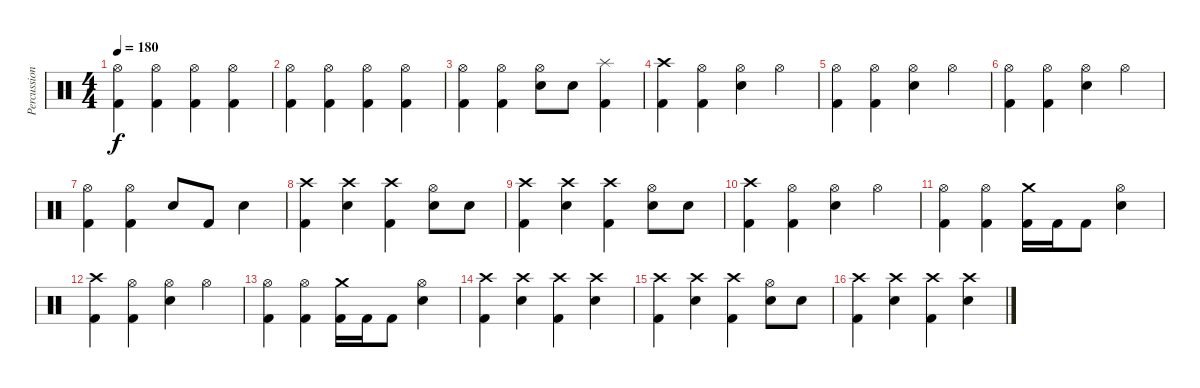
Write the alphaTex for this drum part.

\track ("Percussions" "Percussion") {instrument percussion}
\staff {score}
\articulation defaults
\ts (4 4)
\tempo 180
\clef neutral
\ks c
("Hi-Hat (open)" "Kick (hit) 2").4{dy f} ("Hi-Hat (open)" "Kick (hit) 2").4 ("Hi-Hat (open)" "Kick (hit) 2").4 ("Hi-Hat (open)" "Kick (hit) 2").4 |
("Hi-Hat (open)" "Kick (hit) 2").4{volume 13} ("Hi-Hat (open)" "Kick (hit) 2").4 ("Hi-Hat (open)" "Kick (hit) 2").4 ("Hi-Hat (open)" "Kick (hit) 2").4 |
("Hi-Hat (open)" "Kick (hit) 2").4 ("Hi-Hat (open)" "Kick (hit) 2").4 ("Hi-Hat (open)" "Snare (hit) 2").8 "Snare (hit) 2".8 ("Splash (hit)" "Kick (hit) 2").4 |
("Crash high (hit)" "Kick (hit) 2").4 ("Hi-Hat (open)" "Kick (hit) 2").4 ("Hi-Hat (open)" "Snare (hit) 2").4 "Hi-Hat (open)".4 |
("Hi-Hat (open)" "Kick (hit) 2").4 ("Hi-Hat (open)" "Kick (hit) 2").4 ("Hi-Hat (open)" "Snare (hit) 2").4 "Hi-Hat (open)".4 |
("Hi-Hat (open)" "Kick (hit) 2").4 ("Hi-Hat (open)" "Kick (hit) 2").4 ("Hi-Hat (open)" "Snare (hit) 2").4 "Hi-Hat (open)".4 |
("Hi-Hat (open)" "Kick (hit) 2").4 ("Hi-Hat (open)" "Kick (hit) 2").4 "Snare (hit) 2".8 "Kick (hit) 2".8 "Snare (hit) 2".4 |
("Crash high (hit)" "Kick (hit) 2").4 ("Crash high (hit)" "Snare (hit) 2").4 ("Crash high (hit)" "Kick (hit) 2").4 ("Hi-Hat (open)" "Snare (hit) 2").8 "Snare (hit) 2".8 |
("Crash high (hit)" "Kick (hit) 2").4 ("Crash high (hit)" "Snare (hit) 2").4 ("Crash high (hit)" "Kick (hit) 2").4 ("Hi-Hat (open)" "Snare (hit) 2").8 "Snare (hit) 2".8 |
("Crash high (hit)" "Kick (hit) 2").4 ("Hi-Hat (open)" "Kick (hit) 2").4 ("Hi-Hat (open)" "Snare (hit) 2").4 "Hi-Hat (open)".4 |
("Hi-Hat (open)" "Kick (hit) 2").4 ("Hi-Hat (open)" "Kick (hit) 2").4 ("Crash medium (hit)" "Kick (hit) 2").16 "Kick (hit) 2".16 "Kick (hit) 2".8 ("Hi-Hat (open)" "Snare (hit) 2").4 |
("Crash high (hit)" "Kick (hit) 2").4 ("Hi-Hat (open)" "Kick (hit) 2").4 ("Hi-Hat (open)" "Snare (hit) 2").4 "Hi-Hat (open)".4 |
("Hi-Hat (open)" "Kick (hit) 2").4 ("Hi-Hat (open)" "Kick (hit) 2").4 ("Crash medium (hit)" "Kick (hit) 2").16 "Kick (hit) 2".16 "Kick (hit) 2".8 ("Hi-Hat (open)" "Snare (hit) 2").4 |
("Crash high (hit)" "Kick (hit) 2").4 ("Crash high (hit)" "Snare (hit) 2").4 ("Crash high (hit)" "Kick (hit) 2").4 ("Crash high (hit)" "Snare (hit) 2").4 |
("Crash high (hit)" "Kick (hit) 2").4 ("Crash high (hit)" "Snare (hit) 2").4 ("Crash high (hit)" "Kick (hit) 2").4 ("Hi-Hat (open)" "Snare (hit) 2").8 "Snare (hit) 2".8 |
("Crash high (hit)" "Kick (hit) 2").4 ("Crash high (hit)" "Snare (hit) 2").4 ("Crash high (hit)" "Kick (hit) 2").4 ("Crash high (hit)" "Snare (hit) 2").4
